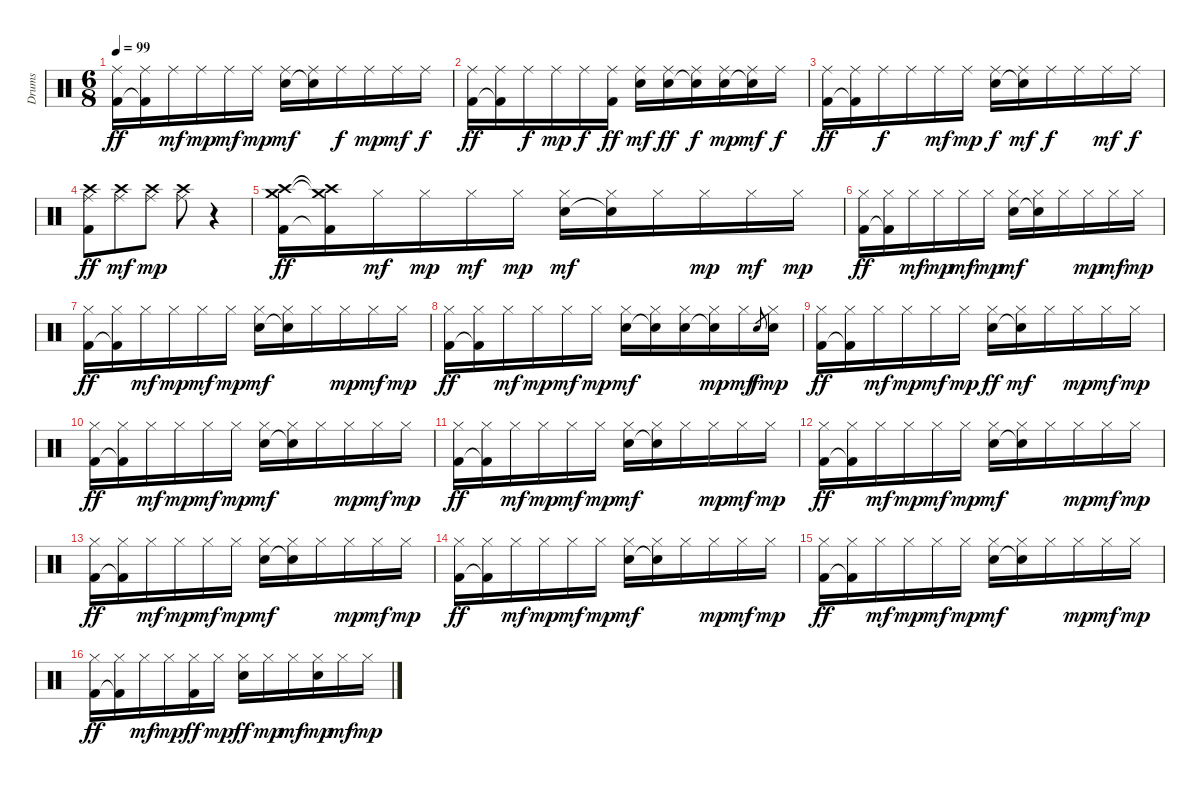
\track ("Drums" "Drums") {instrument percussion}
\staff {score}
\articulation defaults
\ts (6 8)
\tempo 99
\clef neutral
\ks c
("Ride (middle)" "Kick (hit) 2").16{dy ff} ("Ride (middle)" "Kick (hit) 2"{t}).16 "Ride (middle)".16{dy mf} "Ride (middle)".16{dy mp} "Ride (middle)".16{dy mf} "Ride (middle)".16{dy mp} ("Ride (middle)" "Snare (hit) 2").16{dy mf} ("Ride (middle)" "Snare (hit) 2"{t}).16 "Ride (middle)".16{dy f} "Ride (middle)".16{dy mp} "Ride (middle)".16{dy mf} "Ride (middle)".16{dy f} |
("Ride (middle)" "Kick (hit) 2").16{dy ff} ("Ride (middle)" "Kick (hit) 2"{t}).16 "Ride (middle)".16{dy f} "Ride (middle)".16{dy mp} "Ride (middle)".16{dy f} ("Ride (middle)" "Kick (hit) 2").16{dy ff} ("Ride (middle)" "Electric Snare (hit)").16{dy mf} ("Ride (middle)" "Electric Snare (hit)").16{dy ff} ("Ride (middle)" "Electric Snare (hit)"{t}).16{dy f} ("Ride (middle)" "Electric Snare (hit)").16{dy mp} ("Ride (middle)" "Electric Snare (hit)"{t}).16{dy mf} "Ride (middle)".16{dy f} |
("Ride (middle)" "Kick (hit) 2").16{dy ff} ("Ride (middle)" "Kick (hit) 2"{t}).16 "Ride (middle)".16{dy f} "Ride (middle)".16 "Ride (middle)".16{dy mf} "Ride (middle)".16{dy mp} ("Ride (middle)" "Snare (hit) 2").16{dy f} ("Ride (middle)" "Snare (hit) 2"{t}).16{dy mf} "Ride (middle)".16{dy f} "Ride (middle)".16 "Ride (middle)".16{dy mf} "Ride (middle)".16{dy f} |
("Crash high (hit)" "Ride (middle)" "Kick (hit) 2").8{dy ff} ("Crash high (hit)" "Ride (middle)").8{dy mf volume 14} ("Crash high (hit)" "Ride (middle)").8{dy mp volume 16} ("Crash high (hit)" "Ride (middle)").8 r.4 |
("Crash high (hit)" "Crash medium (hit)" "Kick (hit) 2").16{dy ff volume 15} ("Crash high (hit)"{t} "Crash medium (hit)"{t} "Kick (hit) 2"{t}).16 "Hi-Hat (closed)".16{dy mf} "Hi-Hat (closed)".16{dy mp} "Hi-Hat (closed)".16{dy mf} "Hi-Hat (closed)".16{dy mp} ("Hi-Hat (closed)" "Snare (hit) 2").16{dy mf} ("Hi-Hat (closed)" "Snare (hit) 2"{t}).16 "Hi-Hat (closed)".16 "Hi-Hat (closed)".16{dy mp} "Hi-Hat (closed)".16{dy mf} "Hi-Hat (closed)".16{dy mp} |
("Hi-Hat (closed)" "Kick (hit) 2").16{dy ff} ("Hi-Hat (closed)" "Kick (hit) 2"{t}).16 "Hi-Hat (closed)".16{dy mf} "Hi-Hat (closed)".16{dy mp} "Hi-Hat (closed)".16{dy mf} "Hi-Hat (closed)".16{dy mp} ("Hi-Hat (closed)" "Snare (hit) 2").16{dy mf} ("Hi-Hat (closed)" "Snare (hit) 2"{t}).16 "Hi-Hat (closed)".16 "Hi-Hat (closed)".16{dy mp} "Hi-Hat (closed)".16{dy mf} "Hi-Hat (closed)".16{dy mp} |
("Hi-Hat (closed)" "Kick (hit) 2").16{dy ff} ("Hi-Hat (closed)" "Kick (hit) 2"{t}).16 "Hi-Hat (closed)".16{dy mf} "Hi-Hat (closed)".16{dy mp} "Hi-Hat (closed)".16{dy mf} "Hi-Hat (closed)".16{dy mp} ("Hi-Hat (closed)" "Snare (hit) 2").16{dy mf} ("Hi-Hat (closed)" "Snare (hit) 2"{t}).16 "Hi-Hat (closed)".16 "Hi-Hat (closed)".16{dy mp} "Hi-Hat (closed)".16{dy mf} "Hi-Hat (closed)".16{dy mp} |
("Hi-Hat (closed)" "Kick (hit) 2").16{dy ff} ("Hi-Hat (closed)" "Kick (hit) 2"{t}).16 "Hi-Hat (closed)".16{dy mf} "Hi-Hat (closed)".16{dy mp} "Hi-Hat (closed)".16{dy mf} "Hi-Hat (closed)".16{dy mp} ("Hi-Hat (closed)" "Snare (hit) 2").16{dy mf} ("Hi-Hat (closed)" "Snare (hit) 2"{t}).16 ("Hi-Hat (closed)" "Snare (hit) 2").16 ("Hi-Hat (closed)" "Snare (hit) 2"{t}).16{dy mp} "Hi-Hat (closed)".16{dy mf} "Electric Snare (hit)".8{gr dy f} ("Hi-Hat (closed)" "Electric Snare (hit)").16{dy mp} |
("Hi-Hat (closed)" "Kick (hit) 2").16{dy ff} ("Hi-Hat (closed)" "Kick (hit) 2"{t}).16 "Hi-Hat (closed)".16{dy mf} "Hi-Hat (closed)".16{dy mp} "Hi-Hat (closed)".16{dy mf} "Hi-Hat (closed)".16{dy mp} ("Hi-Hat (closed)" "Snare (hit) 2").16{dy ff} ("Hi-Hat (closed)" "Snare (hit) 2"{t}).16{dy mf} "Hi-Hat (closed)".16 "Hi-Hat (closed)".16{dy mp} "Hi-Hat (closed)".16{dy mf} "Hi-Hat (closed)".16{dy mp} |
("Hi-Hat (closed)" "Kick (hit) 2").16{dy ff} ("Hi-Hat (closed)" "Kick (hit) 2"{t}).16 "Hi-Hat (closed)".16{dy mf} "Hi-Hat (closed)".16{dy mp} "Hi-Hat (closed)".16{dy mf} "Hi-Hat (closed)".16{dy mp} ("Hi-Hat (closed)" "Snare (hit) 2").16{dy mf} ("Hi-Hat (closed)" "Snare (hit) 2"{t}).16 "Hi-Hat (closed)".16 "Hi-Hat (closed)".16{dy mp} "Hi-Hat (closed)".16{dy mf} "Hi-Hat (closed)".16{dy mp} |
("Hi-Hat (closed)" "Kick (hit) 2").16{dy ff} ("Hi-Hat (closed)" "Kick (hit) 2"{t}).16 "Hi-Hat (closed)".16{dy mf} "Hi-Hat (closed)".16{dy mp} "Hi-Hat (closed)".16{dy mf} "Hi-Hat (closed)".16{dy mp} ("Hi-Hat (closed)" "Snare (hit) 2").16{dy mf} ("Hi-Hat (closed)" "Snare (hit) 2"{t}).16 "Hi-Hat (closed)".16 "Hi-Hat (closed)".16{dy mp} "Hi-Hat (closed)".16{dy mf} "Hi-Hat (closed)".16{dy mp} |
("Hi-Hat (closed)" "Kick (hit) 2").16{dy ff} ("Hi-Hat (closed)" "Kick (hit) 2"{t}).16 "Hi-Hat (closed)".16{dy mf} "Hi-Hat (closed)".16{dy mp} "Hi-Hat (closed)".16{dy mf} "Hi-Hat (closed)".16{dy mp} ("Hi-Hat (closed)" "Snare (hit) 2").16{dy mf} ("Hi-Hat (closed)" "Snare (hit) 2"{t}).16 "Hi-Hat (closed)".16 "Hi-Hat (closed)".16{dy mp} "Hi-Hat (closed)".16{dy mf} "Hi-Hat (closed)".16{dy mp} |
("Hi-Hat (closed)" "Kick (hit) 2").16{dy ff} ("Hi-Hat (closed)" "Kick (hit) 2"{t}).16 "Hi-Hat (closed)".16{dy mf} "Hi-Hat (closed)".16{dy mp} "Hi-Hat (closed)".16{dy mf} "Hi-Hat (closed)".16{dy mp} ("Hi-Hat (closed)" "Snare (hit) 2").16{dy mf} ("Hi-Hat (closed)" "Snare (hit) 2"{t}).16 "Hi-Hat (closed)".16 "Hi-Hat (closed)".16{dy mp} "Hi-Hat (closed)".16{dy mf} "Hi-Hat (closed)".16{dy mp} |
("Hi-Hat (closed)" "Kick (hit) 2").16{dy ff} ("Hi-Hat (closed)" "Kick (hit) 2"{t}).16 "Hi-Hat (closed)".16{dy mf} "Hi-Hat (closed)".16{dy mp} "Hi-Hat (closed)".16{dy mf} "Hi-Hat (closed)".16{dy mp} ("Hi-Hat (closed)" "Snare (hit) 2").16{dy mf} ("Hi-Hat (closed)" "Snare (hit) 2"{t}).16 "Hi-Hat (closed)".16 "Hi-Hat (closed)".16{dy mp} "Hi-Hat (closed)".16{dy mf} "Hi-Hat (closed)".16{dy mp} |
("Hi-Hat (closed)" "Kick (hit) 2").16{dy ff} ("Hi-Hat (closed)" "Kick (hit) 2"{t}).16 "Hi-Hat (closed)".16{dy mf} "Hi-Hat (closed)".16{dy mp} "Hi-Hat (closed)".16{dy mf} "Hi-Hat (closed)".16{dy mp} ("Hi-Hat (closed)" "Snare (hit) 2").16{dy mf} ("Hi-Hat (closed)" "Snare (hit) 2"{t}).16 "Hi-Hat (closed)".16 "Hi-Hat (closed)".16{dy mp} "Hi-Hat (closed)".16{dy mf} "Hi-Hat (closed)".16{dy mp} |
("Hi-Hat (closed)" "Kick (hit) 2").16{dy ff} ("Hi-Hat (closed)" "Kick (hit) 2"{t}).16 "Hi-Hat (closed)".16{dy mf} "Hi-Hat (closed)".16{dy mp} ("Hi-Hat (closed)" "Kick (hit) 2").16{dy ff} "Hi-Hat (closed)".16{dy mp} ("Hi-Hat (closed)" "Electric Snare (hit)").16{dy ff} "Hi-Hat (closed)".16{dy mp} "Hi-Hat (closed)".16{dy mf} ("Hi-Hat (closed)" "Electric Snare (hit)").16{dy mp} "Hi-Hat (closed)".16{dy mf} "Hi-Hat (closed)".16{dy mp}
